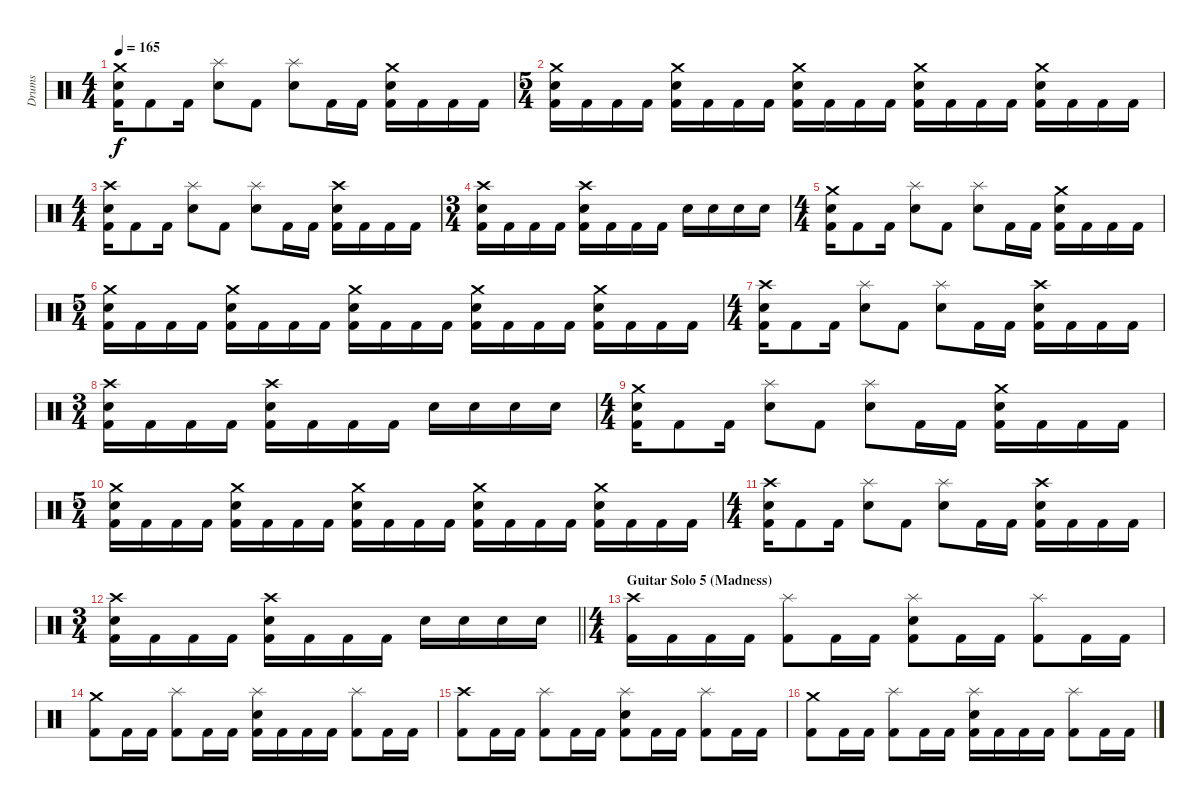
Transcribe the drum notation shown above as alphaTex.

\track ("Drums" "Drums") {instrument percussion}
\staff {score}
\articulation defaults
\ts (4 4)
\tempo 165
\clef neutral
\ks c
("Crash medium (hit)" "Snare (hit) 2" "Kick (hit) 2").16{dy f} "Kick (hit) 2".8 "Kick (hit) 2".16 ("Splash (hit)" "Snare (hit) 2").8 "Kick (hit) 2".8 ("Splash (hit)" "Snare (hit) 2").8 "Kick (hit) 2".16 "Kick (hit) 2".16 ("Crash medium (hit)" "Snare (hit) 2" "Kick (hit) 2").16 "Kick (hit) 2".16 "Kick (hit) 2".16 "Kick (hit) 2".16 |
\ts (5 4)
("Crash medium (hit)" "Snare (hit) 2" "Kick (hit) 2").16 "Kick (hit) 2".16 "Kick (hit) 2".16 "Kick (hit) 2".16 ("Crash medium (hit)" "Snare (hit) 2" "Kick (hit) 2").16 "Kick (hit) 2".16 "Kick (hit) 2".16 "Kick (hit) 2".16 ("Crash medium (hit)" "Snare (hit) 2" "Kick (hit) 2").16 "Kick (hit) 2".16 "Kick (hit) 2".16 "Kick (hit) 2".16 ("Crash medium (hit)" "Snare (hit) 2" "Kick (hit) 2").16 "Kick (hit) 2".16 "Kick (hit) 2".16 "Kick (hit) 2".16 ("Crash medium (hit)" "Snare (hit) 2" "Kick (hit) 2").16 "Kick (hit) 2".16 "Kick (hit) 2".16 "Kick (hit) 2".16 |
\ts (4 4)
("Crash high (hit)" "Snare (hit) 2" "Kick (hit) 2").16 "Kick (hit) 2".8 "Kick (hit) 2".16 ("Splash (hit)" "Snare (hit) 2").8 "Kick (hit) 2".8 ("Splash (hit)" "Snare (hit) 2").8 "Kick (hit) 2".16 "Kick (hit) 2".16 ("Crash high (hit)" "Snare (hit) 2" "Kick (hit) 2").16 "Kick (hit) 2".16 "Kick (hit) 2".16 "Kick (hit) 2".16 |
\ts (3 4)
("Crash high (hit)" "Snare (hit) 2" "Kick (hit) 2").16 "Kick (hit) 2".16 "Kick (hit) 2".16 "Kick (hit) 2".16 ("Crash high (hit)" "Snare (hit) 2" "Kick (hit) 2").16 "Kick (hit) 2".16 "Kick (hit) 2".16 "Kick (hit) 2".16 "Snare (hit) 2".16 "Snare (hit) 2".16 "Snare (hit) 2".16 "Snare (hit) 2".16 |
\ts (4 4)
("Crash medium (hit)" "Snare (hit) 2" "Kick (hit) 2").16 "Kick (hit) 2".8 "Kick (hit) 2".16 ("Splash (hit)" "Snare (hit) 2").8 "Kick (hit) 2".8 ("Splash (hit)" "Snare (hit) 2").8 "Kick (hit) 2".16 "Kick (hit) 2".16 ("Crash medium (hit)" "Snare (hit) 2" "Kick (hit) 2").16 "Kick (hit) 2".16 "Kick (hit) 2".16 "Kick (hit) 2".16 |
\ts (5 4)
("Crash medium (hit)" "Snare (hit) 2" "Kick (hit) 2").16 "Kick (hit) 2".16 "Kick (hit) 2".16 "Kick (hit) 2".16 ("Crash medium (hit)" "Snare (hit) 2" "Kick (hit) 2").16 "Kick (hit) 2".16 "Kick (hit) 2".16 "Kick (hit) 2".16 ("Crash medium (hit)" "Snare (hit) 2" "Kick (hit) 2").16 "Kick (hit) 2".16 "Kick (hit) 2".16 "Kick (hit) 2".16 ("Crash medium (hit)" "Snare (hit) 2" "Kick (hit) 2").16 "Kick (hit) 2".16 "Kick (hit) 2".16 "Kick (hit) 2".16 ("Crash medium (hit)" "Snare (hit) 2" "Kick (hit) 2").16 "Kick (hit) 2".16 "Kick (hit) 2".16 "Kick (hit) 2".16 |
\ts (4 4)
("Crash high (hit)" "Snare (hit) 2" "Kick (hit) 2").16 "Kick (hit) 2".8 "Kick (hit) 2".16 ("Splash (hit)" "Snare (hit) 2").8 "Kick (hit) 2".8 ("Splash (hit)" "Snare (hit) 2").8 "Kick (hit) 2".16 "Kick (hit) 2".16 ("Crash high (hit)" "Snare (hit) 2" "Kick (hit) 2").16 "Kick (hit) 2".16 "Kick (hit) 2".16 "Kick (hit) 2".16 |
\ts (3 4)
("Crash high (hit)" "Snare (hit) 2" "Kick (hit) 2").16 "Kick (hit) 2".16 "Kick (hit) 2".16 "Kick (hit) 2".16 ("Crash high (hit)" "Snare (hit) 2" "Kick (hit) 2").16 "Kick (hit) 2".16 "Kick (hit) 2".16 "Kick (hit) 2".16 "Snare (hit) 2".16 "Snare (hit) 2".16 "Snare (hit) 2".16 "Snare (hit) 2".16 |
\ts (4 4)
("Crash medium (hit)" "Snare (hit) 2" "Kick (hit) 2").16 "Kick (hit) 2".8 "Kick (hit) 2".16 ("Splash (hit)" "Snare (hit) 2").8 "Kick (hit) 2".8 ("Splash (hit)" "Snare (hit) 2").8 "Kick (hit) 2".16 "Kick (hit) 2".16 ("Crash medium (hit)" "Snare (hit) 2" "Kick (hit) 2").16 "Kick (hit) 2".16 "Kick (hit) 2".16 "Kick (hit) 2".16 |
\ts (5 4)
("Crash medium (hit)" "Snare (hit) 2" "Kick (hit) 2").16 "Kick (hit) 2".16 "Kick (hit) 2".16 "Kick (hit) 2".16 ("Crash medium (hit)" "Snare (hit) 2" "Kick (hit) 2").16 "Kick (hit) 2".16 "Kick (hit) 2".16 "Kick (hit) 2".16 ("Crash medium (hit)" "Snare (hit) 2" "Kick (hit) 2").16 "Kick (hit) 2".16 "Kick (hit) 2".16 "Kick (hit) 2".16 ("Crash medium (hit)" "Snare (hit) 2" "Kick (hit) 2").16 "Kick (hit) 2".16 "Kick (hit) 2".16 "Kick (hit) 2".16 ("Crash medium (hit)" "Snare (hit) 2" "Kick (hit) 2").16 "Kick (hit) 2".16 "Kick (hit) 2".16 "Kick (hit) 2".16 |
\ts (4 4)
("Crash high (hit)" "Snare (hit) 2" "Kick (hit) 2").16 "Kick (hit) 2".8 "Kick (hit) 2".16 ("Splash (hit)" "Snare (hit) 2").8 "Kick (hit) 2".8 ("Splash (hit)" "Snare (hit) 2").8 "Kick (hit) 2".16 "Kick (hit) 2".16 ("Crash high (hit)" "Snare (hit) 2" "Kick (hit) 2").16 "Kick (hit) 2".16 "Kick (hit) 2".16 "Kick (hit) 2".16 |
\ts (3 4)
\barLineRight lightlight
("Crash high (hit)" "Snare (hit) 2" "Kick (hit) 2").16 "Kick (hit) 2".16 "Kick (hit) 2".16 "Kick (hit) 2".16 ("Crash high (hit)" "Snare (hit) 2" "Kick (hit) 2").16 "Kick (hit) 2".16 "Kick (hit) 2".16 "Kick (hit) 2".16 "Snare (hit) 2".16 "Snare (hit) 2".16 "Snare (hit) 2".16 "Snare (hit) 2".16 |
\ts (4 4)
\section ("" "Guitar Solo 5 (Madness)")
("Crash high (hit)" "Kick (hit) 2").16 "Kick (hit) 2".16 "Kick (hit) 2".16 "Kick (hit) 2".16 ("Splash (hit)" "Kick (hit) 2").8 "Kick (hit) 2".16 "Kick (hit) 2".16 ("Splash (hit)" "Snare (hit) 2" "Kick (hit) 2").8 "Kick (hit) 2".16 "Kick (hit) 2".16 ("Splash (hit)" "Kick (hit) 2").8 "Kick (hit) 2".16 "Kick (hit) 2".16 |
("Crash medium (hit)" "Kick (hit) 2").8 "Kick (hit) 2".16 "Kick (hit) 2".16 ("Splash (hit)" "Kick (hit) 2").8 "Kick (hit) 2".16 "Kick (hit) 2".16 ("Splash (hit)" "Snare (hit) 2" "Kick (hit) 2").16 "Kick (hit) 2".16 "Kick (hit) 2".16 "Kick (hit) 2".16 ("Splash (hit)" "Kick (hit) 2").8 "Kick (hit) 2".16 "Kick (hit) 2".16 |
("Crash high (hit)" "Kick (hit) 2").8 "Kick (hit) 2".16 "Kick (hit) 2".16 ("Splash (hit)" "Kick (hit) 2").8 "Kick (hit) 2".16 "Kick (hit) 2".16 ("Splash (hit)" "Snare (hit) 2" "Kick (hit) 2").8 "Kick (hit) 2".16 "Kick (hit) 2".16 ("Splash (hit)" "Kick (hit) 2").8 "Kick (hit) 2".16 "Kick (hit) 2".16 |
("Crash medium (hit)" "Kick (hit) 2").8 "Kick (hit) 2".16 "Kick (hit) 2".16 ("Splash (hit)" "Kick (hit) 2").8 "Kick (hit) 2".16 "Kick (hit) 2".16 ("Splash (hit)" "Snare (hit) 2" "Kick (hit) 2").16 "Kick (hit) 2".16 "Kick (hit) 2".16 "Kick (hit) 2".16 ("Splash (hit)" "Kick (hit) 2").8 "Kick (hit) 2".16 "Kick (hit) 2".16
